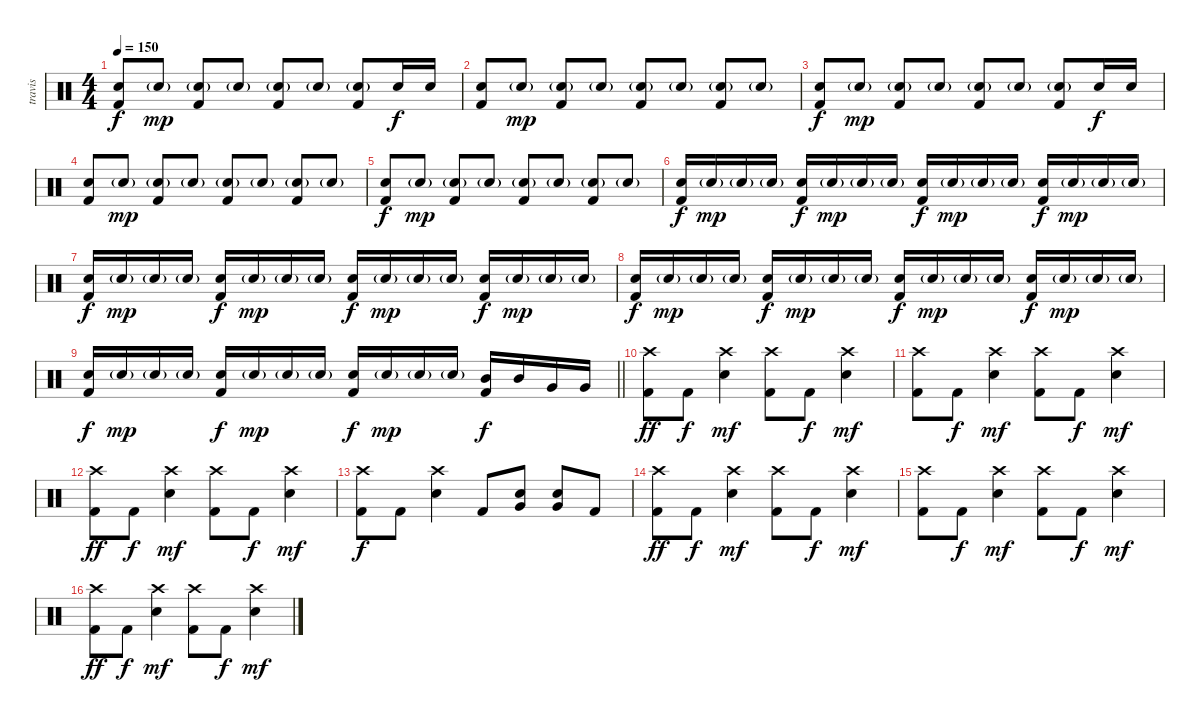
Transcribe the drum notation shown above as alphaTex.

\track ("travis" "travis") {instrument percussion}
\staff {score}
\articulation defaults
\ts (4 4)
\tempo 150
\clef neutral
\ks c
("Electric Snare (hit)" "Kick (hit) 2").8{dy f} "Electric Snare (hit)"{g}.8{dy mp} ("Electric Snare (hit)"{g} "Kick (hit) 2").8 "Electric Snare (hit)"{g}.8 ("Electric Snare (hit)"{g} "Kick (hit) 2").8 "Electric Snare (hit)"{g}.8 ("Electric Snare (hit)"{g} "Kick (hit) 2").8 "Electric Snare (hit)".16{dy f} "Electric Snare (hit)".16 |
("Electric Snare (hit)" "Kick (hit) 2").8 "Electric Snare (hit)"{g}.8{dy mp} ("Electric Snare (hit)"{g} "Kick (hit) 2").8 "Electric Snare (hit)"{g}.8 ("Electric Snare (hit)"{g} "Kick (hit) 2").8 "Electric Snare (hit)"{g}.8 ("Electric Snare (hit)"{g} "Kick (hit) 2").8 "Electric Snare (hit)"{g}.8 |
("Electric Snare (hit)" "Kick (hit) 2").8{dy f} "Electric Snare (hit)"{g}.8{dy mp} ("Electric Snare (hit)"{g} "Kick (hit) 2").8 "Electric Snare (hit)"{g}.8 ("Electric Snare (hit)"{g} "Kick (hit) 2").8 "Electric Snare (hit)"{g}.8 ("Electric Snare (hit)"{g} "Kick (hit) 2").8 "Electric Snare (hit)".16{dy f} "Electric Snare (hit)".16 |
("Electric Snare (hit)" "Kick (hit) 2").8 "Electric Snare (hit)"{g}.8{dy mp} ("Electric Snare (hit)"{g} "Kick (hit) 2").8 "Electric Snare (hit)"{g}.8 ("Electric Snare (hit)"{g} "Kick (hit) 2").8 "Electric Snare (hit)"{g}.8 ("Electric Snare (hit)"{g} "Kick (hit) 2").8 "Electric Snare (hit)"{g}.8 |
("Electric Snare (hit)" "Kick (hit) 2").8{dy f} "Electric Snare (hit)"{g}.8{dy mp} ("Electric Snare (hit)"{g} "Kick (hit) 2").8 "Electric Snare (hit)"{g}.8 ("Electric Snare (hit)"{g} "Kick (hit) 2").8 "Electric Snare (hit)"{g}.8 ("Electric Snare (hit)"{g} "Kick (hit) 2").8 "Electric Snare (hit)"{g}.8 |
("Electric Snare (hit)" "Kick (hit) 2").16{dy f} "Electric Snare (hit)"{g}.16{dy mp} "Electric Snare (hit)"{g}.16 "Electric Snare (hit)"{g}.16 ("Electric Snare (hit)" "Kick (hit) 2").16{dy f} "Electric Snare (hit)"{g}.16{dy mp} "Electric Snare (hit)"{g}.16 "Electric Snare (hit)"{g}.16 ("Electric Snare (hit)" "Kick (hit) 2").16{dy f} "Electric Snare (hit)"{g}.16{dy mp} "Electric Snare (hit)"{g}.16 "Electric Snare (hit)"{g}.16 ("Electric Snare (hit)" "Kick (hit) 2").16{dy f} "Electric Snare (hit)"{g}.16{dy mp} "Electric Snare (hit)"{g}.16 "Electric Snare (hit)"{g}.16 |
("Electric Snare (hit)" "Kick (hit) 2").16{dy f} "Electric Snare (hit)"{g}.16{dy mp} "Electric Snare (hit)"{g}.16 "Electric Snare (hit)"{g}.16 ("Electric Snare (hit)" "Kick (hit) 2").16{dy f} "Electric Snare (hit)"{g}.16{dy mp} "Electric Snare (hit)"{g}.16 "Electric Snare (hit)"{g}.16 ("Electric Snare (hit)" "Kick (hit) 2").16{dy f} "Electric Snare (hit)"{g}.16{dy mp} "Electric Snare (hit)"{g}.16 "Electric Snare (hit)"{g}.16 ("Electric Snare (hit)" "Kick (hit) 2").16{dy f} "Electric Snare (hit)"{g}.16{dy mp} "Electric Snare (hit)"{g}.16 "Electric Snare (hit)"{g}.16 |
("Electric Snare (hit)" "Kick (hit) 2").16{dy f} "Electric Snare (hit)"{g}.16{dy mp} "Electric Snare (hit)"{g}.16 "Electric Snare (hit)"{g}.16 ("Electric Snare (hit)" "Kick (hit) 2").16{dy f} "Electric Snare (hit)"{g}.16{dy mp} "Electric Snare (hit)"{g}.16 "Electric Snare (hit)"{g}.16 ("Electric Snare (hit)" "Kick (hit) 2").16{dy f} "Electric Snare (hit)"{g}.16{dy mp} "Electric Snare (hit)"{g}.16 "Electric Snare (hit)"{g}.16 ("Electric Snare (hit)" "Kick (hit) 2").16{dy f} "Electric Snare (hit)"{g}.16{dy mp} "Electric Snare (hit)"{g}.16 "Electric Snare (hit)"{g}.16 |
\barLineRight lightlight
("Electric Snare (hit)" "Kick (hit) 2").16{dy f} "Electric Snare (hit)"{g}.16{dy mp} "Electric Snare (hit)"{g}.16 "Electric Snare (hit)"{g}.16 ("Electric Snare (hit)" "Kick (hit) 2").16{dy f} "Electric Snare (hit)"{g}.16{dy mp} "Electric Snare (hit)"{g}.16 "Electric Snare (hit)"{g}.16 ("Electric Snare (hit)" "Kick (hit) 2").16{dy f} "Electric Snare (hit)"{g}.16{dy mp} "Electric Snare (hit)"{g}.16 "Electric Snare (hit)"{g}.16 ("Mid Tom (hit)" "Kick (hit) 2").16{dy f} "Mid Tom (hit)".16 "Very Low Tom (hit)".16 "Very Low Tom (hit)".16 |
("Crash high (hit)" "Kick (hit) 2").8{dy ff} "Kick (hit) 2".8{dy f} ("Crash high (hit)" "Electric Snare (hit)").4{dy mf} ("Crash high (hit)" "Kick (hit) 2").8 "Kick (hit) 2".8{dy f} ("Crash high (hit)" "Electric Snare (hit)").4{dy mf} |
("Crash high (hit)" "Kick (hit) 2").8 "Kick (hit) 2".8{dy f} ("Crash high (hit)" "Electric Snare (hit)").4{dy mf} ("Crash high (hit)" "Kick (hit) 2").8 "Kick (hit) 2".8{dy f} ("Crash high (hit)" "Electric Snare (hit)").4{dy mf} |
("Crash high (hit)" "Kick (hit) 2").8{dy ff} "Kick (hit) 2".8{dy f} ("Crash high (hit)" "Electric Snare (hit)").4{dy mf} ("Crash high (hit)" "Kick (hit) 2").8 "Kick (hit) 2".8{dy f} ("Crash high (hit)" "Electric Snare (hit)").4{dy mf} |
("Crash high (hit)" "Kick (hit) 2").8{dy f} "Kick (hit) 2".8 ("Crash high (hit)" "Electric Snare (hit)").4 "Kick (hit) 2".8 ("Very Low Tom (hit)" "Electric Snare (hit)").8 ("Very Low Tom (hit)" "Electric Snare (hit)").8 "Kick (hit) 2".8 |
("Crash high (hit)" "Kick (hit) 2").8{dy ff} "Kick (hit) 2".8{dy f} ("Crash high (hit)" "Electric Snare (hit)").4{dy mf} ("Crash high (hit)" "Kick (hit) 2").8 "Kick (hit) 2".8{dy f} ("Crash high (hit)" "Electric Snare (hit)").4{dy mf} |
("Crash high (hit)" "Kick (hit) 2").8 "Kick (hit) 2".8{dy f} ("Crash high (hit)" "Electric Snare (hit)").4{dy mf} ("Crash high (hit)" "Kick (hit) 2").8 "Kick (hit) 2".8{dy f} ("Crash high (hit)" "Electric Snare (hit)").4{dy mf} |
("Crash high (hit)" "Kick (hit) 2").8{dy ff} "Kick (hit) 2".8{dy f} ("Crash high (hit)" "Electric Snare (hit)").4{dy mf} ("Crash high (hit)" "Kick (hit) 2").8 "Kick (hit) 2".8{dy f} ("Crash high (hit)" "Electric Snare (hit)").4{dy mf}
